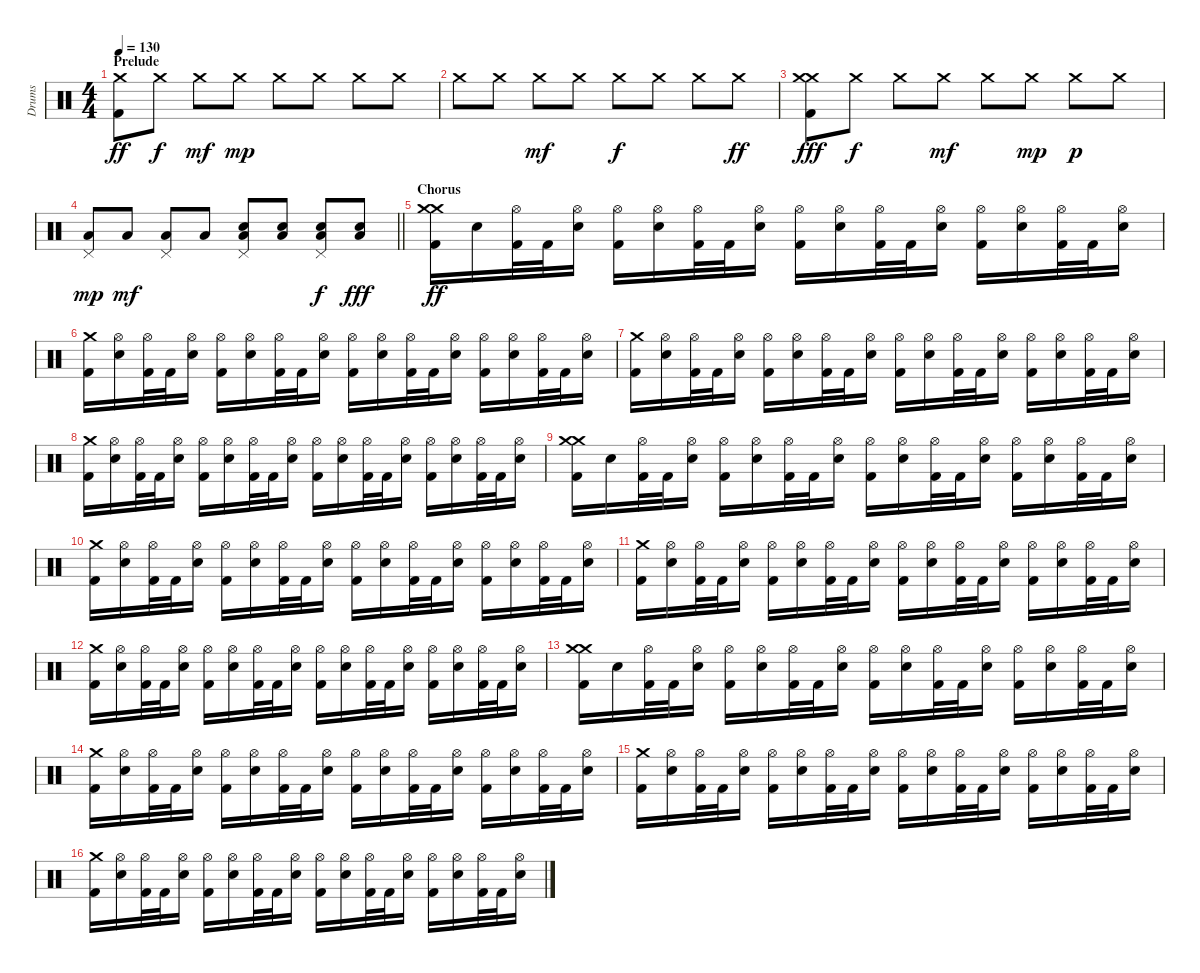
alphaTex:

\track ("Drums" "Drums") {instrument percussion}
\staff {score}
\articulation defaults
\ts (4 4)
\section ("" "Prelude")
\tempo 130
\clef neutral
\ks c
("Crash medium (hit)" "Kick (hit) 2").8{dy ff} "Crash medium (hit)".8{dy f} "Crash medium (hit)".8{dy mf} "Crash medium (hit)".8{dy mp} "Crash medium (hit)".8 "Crash medium (hit)".8 "Crash medium (hit)".8 "Crash medium (hit)".8 |
"Crash medium (hit)".8 "Crash medium (hit)".8 "Crash medium (hit)".8{dy mf} "Crash medium (hit)".8 "Crash medium (hit)".8{dy f} "Crash medium (hit)".8 "Crash medium (hit)".8 "Crash medium (hit)".8{dy ff} |
("Crash medium (hit)" "Crash medium (hit)" "Kick (hit) 2").8{dy fff} "Crash medium (hit)".8{dy f} "Crash medium (hit)".8 "Crash medium (hit)".8{dy mf} "Crash medium (hit)".8 "Crash medium (hit)".8{dy mp} "Crash medium (hit)".8{dy p} "Crash medium (hit)".8 |
\barLineRight lightlight
("Pedal Hi-Hat (hit)" "Low Tom (hit)").8{dy mp} "Low Tom (hit)".8{dy mf} ("Pedal Hi-Hat (hit)" "Low Tom (hit)").8 "Low Tom (hit)".8 ("Pedal Hi-Hat (hit)" "Snare (hit) 2" "Low Tom (hit)").8 ("Snare (hit) 2" "Low Tom (hit)").8 ("Pedal Hi-Hat (hit)" "Snare (hit) 2" "Low Tom (hit)").8{dy f} ("Snare (hit) 2" "Low Tom (hit)").8{dy fff} |
\section ("" "Chorus")
("Crash medium (hit)" "Crash medium (hit)" "Kick (hit) 2").16{dy ff} "Snare (hit) 2".16 ("Hi-Hat (open)" "Kick (hit) 2").32 "Kick (hit) 2".32 ("Hi-Hat (open)" "Snare (hit) 2").16 ("Hi-Hat (open)" "Kick (hit) 2").16 ("Hi-Hat (open)" "Snare (hit) 2").16 ("Hi-Hat (open)" "Kick (hit) 2").32 "Kick (hit) 2".32 ("Hi-Hat (open)" "Snare (hit) 2").16 ("Hi-Hat (open)" "Kick (hit) 2").16 ("Hi-Hat (open)" "Snare (hit) 2").16 ("Hi-Hat (open)" "Kick (hit) 2").32 "Kick (hit) 2".32 ("Hi-Hat (open)" "Snare (hit) 2").16 ("Hi-Hat (open)" "Kick (hit) 2").16 ("Hi-Hat (open)" "Snare (hit) 2").16 ("Hi-Hat (open)" "Kick (hit) 2").32 "Kick (hit) 2".32 ("Hi-Hat (open)" "Snare (hit) 2").16 |
("Crash medium (hit)" "Kick (hit) 2").16 ("Hi-Hat (open)" "Snare (hit) 2").16 ("Hi-Hat (open)" "Kick (hit) 2").32 "Kick (hit) 2".32 ("Hi-Hat (open)" "Snare (hit) 2").16 ("Hi-Hat (open)" "Kick (hit) 2").16 ("Hi-Hat (open)" "Snare (hit) 2").16 ("Hi-Hat (open)" "Kick (hit) 2").32 "Kick (hit) 2".32 ("Hi-Hat (open)" "Snare (hit) 2").16 ("Hi-Hat (open)" "Kick (hit) 2").16 ("Hi-Hat (open)" "Snare (hit) 2").16 ("Hi-Hat (open)" "Kick (hit) 2").32 "Kick (hit) 2".32 ("Hi-Hat (open)" "Snare (hit) 2").16 ("Hi-Hat (open)" "Kick (hit) 2").16 ("Hi-Hat (open)" "Snare (hit) 2").16 ("Hi-Hat (open)" "Kick (hit) 2").32 "Kick (hit) 2".32 ("Hi-Hat (open)" "Snare (hit) 2").16 |
("Crash medium (hit)" "Kick (hit) 2").16 ("Hi-Hat (open)" "Snare (hit) 2").16 ("Hi-Hat (open)" "Kick (hit) 2").32 "Kick (hit) 2".32 ("Hi-Hat (open)" "Snare (hit) 2").16 ("Hi-Hat (open)" "Kick (hit) 2").16 ("Hi-Hat (open)" "Snare (hit) 2").16 ("Hi-Hat (open)" "Kick (hit) 2").32 "Kick (hit) 2".32 ("Hi-Hat (open)" "Snare (hit) 2").16 ("Hi-Hat (open)" "Kick (hit) 2").16 ("Hi-Hat (open)" "Snare (hit) 2").16 ("Hi-Hat (open)" "Kick (hit) 2").32 "Kick (hit) 2".32 ("Hi-Hat (open)" "Snare (hit) 2").16 ("Hi-Hat (open)" "Kick (hit) 2").16 ("Hi-Hat (open)" "Snare (hit) 2").16 ("Hi-Hat (open)" "Kick (hit) 2").32 "Kick (hit) 2".32 ("Hi-Hat (open)" "Snare (hit) 2").16 |
("Crash medium (hit)" "Kick (hit) 2").16 ("Hi-Hat (open)" "Snare (hit) 2").16 ("Hi-Hat (open)" "Kick (hit) 2").32 "Kick (hit) 2".32 ("Hi-Hat (open)" "Snare (hit) 2").16 ("Hi-Hat (open)" "Kick (hit) 2").16 ("Hi-Hat (open)" "Snare (hit) 2").16 ("Hi-Hat (open)" "Kick (hit) 2").32 "Kick (hit) 2".32 ("Hi-Hat (open)" "Snare (hit) 2").16 ("Hi-Hat (open)" "Kick (hit) 2").16 ("Hi-Hat (open)" "Snare (hit) 2").16 ("Hi-Hat (open)" "Kick (hit) 2").32 "Kick (hit) 2".32 ("Hi-Hat (open)" "Snare (hit) 2").16 ("Hi-Hat (open)" "Kick (hit) 2").16 ("Hi-Hat (open)" "Snare (hit) 2").16 ("Hi-Hat (open)" "Kick (hit) 2").32 "Kick (hit) 2".32 ("Hi-Hat (open)" "Snare (hit) 2").16 |
("Crash medium (hit)" "Crash medium (hit)" "Kick (hit) 2").16 "Snare (hit) 2".16 ("Hi-Hat (open)" "Kick (hit) 2").32 "Kick (hit) 2".32 ("Hi-Hat (open)" "Snare (hit) 2").16 ("Hi-Hat (open)" "Kick (hit) 2").16 ("Hi-Hat (open)" "Snare (hit) 2").16 ("Hi-Hat (open)" "Kick (hit) 2").32 "Kick (hit) 2".32 ("Hi-Hat (open)" "Snare (hit) 2").16 ("Hi-Hat (open)" "Kick (hit) 2").16 ("Hi-Hat (open)" "Snare (hit) 2").16 ("Hi-Hat (open)" "Kick (hit) 2").32 "Kick (hit) 2".32 ("Hi-Hat (open)" "Snare (hit) 2").16 ("Hi-Hat (open)" "Kick (hit) 2").16 ("Hi-Hat (open)" "Snare (hit) 2").16 ("Hi-Hat (open)" "Kick (hit) 2").32 "Kick (hit) 2".32 ("Hi-Hat (open)" "Snare (hit) 2").16 |
("Crash medium (hit)" "Kick (hit) 2").16 ("Hi-Hat (open)" "Snare (hit) 2").16 ("Hi-Hat (open)" "Kick (hit) 2").32 "Kick (hit) 2".32 ("Hi-Hat (open)" "Snare (hit) 2").16 ("Hi-Hat (open)" "Kick (hit) 2").16 ("Hi-Hat (open)" "Snare (hit) 2").16 ("Hi-Hat (open)" "Kick (hit) 2").32 "Kick (hit) 2".32 ("Hi-Hat (open)" "Snare (hit) 2").16 ("Hi-Hat (open)" "Kick (hit) 2").16 ("Hi-Hat (open)" "Snare (hit) 2").16 ("Hi-Hat (open)" "Kick (hit) 2").32 "Kick (hit) 2".32 ("Hi-Hat (open)" "Snare (hit) 2").16 ("Hi-Hat (open)" "Kick (hit) 2").16 ("Hi-Hat (open)" "Snare (hit) 2").16 ("Hi-Hat (open)" "Kick (hit) 2").32 "Kick (hit) 2".32 ("Hi-Hat (open)" "Snare (hit) 2").16 |
("Crash medium (hit)" "Kick (hit) 2").16 ("Hi-Hat (open)" "Snare (hit) 2").16 ("Hi-Hat (open)" "Kick (hit) 2").32 "Kick (hit) 2".32 ("Hi-Hat (open)" "Snare (hit) 2").16 ("Hi-Hat (open)" "Kick (hit) 2").16 ("Hi-Hat (open)" "Snare (hit) 2").16 ("Hi-Hat (open)" "Kick (hit) 2").32 "Kick (hit) 2".32 ("Hi-Hat (open)" "Snare (hit) 2").16 ("Hi-Hat (open)" "Kick (hit) 2").16 ("Hi-Hat (open)" "Snare (hit) 2").16 ("Hi-Hat (open)" "Kick (hit) 2").32 "Kick (hit) 2".32 ("Hi-Hat (open)" "Snare (hit) 2").16 ("Hi-Hat (open)" "Kick (hit) 2").16 ("Hi-Hat (open)" "Snare (hit) 2").16 ("Hi-Hat (open)" "Kick (hit) 2").32 "Kick (hit) 2".32 ("Hi-Hat (open)" "Snare (hit) 2").16 |
("Crash medium (hit)" "Kick (hit) 2").16 ("Hi-Hat (open)" "Snare (hit) 2").16 ("Hi-Hat (open)" "Kick (hit) 2").32 "Kick (hit) 2".32 ("Hi-Hat (open)" "Snare (hit) 2").16 ("Hi-Hat (open)" "Kick (hit) 2").16 ("Hi-Hat (open)" "Snare (hit) 2").16 ("Hi-Hat (open)" "Kick (hit) 2").32 "Kick (hit) 2".32 ("Hi-Hat (open)" "Snare (hit) 2").16 ("Hi-Hat (open)" "Kick (hit) 2").16 ("Hi-Hat (open)" "Snare (hit) 2").16 ("Hi-Hat (open)" "Kick (hit) 2").32 "Kick (hit) 2".32 ("Hi-Hat (open)" "Snare (hit) 2").16 ("Hi-Hat (open)" "Kick (hit) 2").16 ("Hi-Hat (open)" "Snare (hit) 2").16 ("Hi-Hat (open)" "Kick (hit) 2").32 "Kick (hit) 2".32 ("Hi-Hat (open)" "Snare (hit) 2").16 |
("Crash medium (hit)" "Crash medium (hit)" "Kick (hit) 2").16 "Snare (hit) 2".16 ("Hi-Hat (open)" "Kick (hit) 2").32 "Kick (hit) 2".32 ("Hi-Hat (open)" "Snare (hit) 2").16 ("Hi-Hat (open)" "Kick (hit) 2").16 ("Hi-Hat (open)" "Snare (hit) 2").16 ("Hi-Hat (open)" "Kick (hit) 2").32 "Kick (hit) 2".32 ("Hi-Hat (open)" "Snare (hit) 2").16 ("Hi-Hat (open)" "Kick (hit) 2").16 ("Hi-Hat (open)" "Snare (hit) 2").16 ("Hi-Hat (open)" "Kick (hit) 2").32 "Kick (hit) 2".32 ("Hi-Hat (open)" "Snare (hit) 2").16 ("Hi-Hat (open)" "Kick (hit) 2").16 ("Hi-Hat (open)" "Snare (hit) 2").16 ("Hi-Hat (open)" "Kick (hit) 2").32 "Kick (hit) 2".32 ("Hi-Hat (open)" "Snare (hit) 2").16 |
("Crash medium (hit)" "Kick (hit) 2").16 ("Hi-Hat (open)" "Snare (hit) 2").16 ("Hi-Hat (open)" "Kick (hit) 2").32 "Kick (hit) 2".32 ("Hi-Hat (open)" "Snare (hit) 2").16 ("Hi-Hat (open)" "Kick (hit) 2").16 ("Hi-Hat (open)" "Snare (hit) 2").16 ("Hi-Hat (open)" "Kick (hit) 2").32 "Kick (hit) 2".32 ("Hi-Hat (open)" "Snare (hit) 2").16 ("Hi-Hat (open)" "Kick (hit) 2").16 ("Hi-Hat (open)" "Snare (hit) 2").16 ("Hi-Hat (open)" "Kick (hit) 2").32 "Kick (hit) 2".32 ("Hi-Hat (open)" "Snare (hit) 2").16 ("Hi-Hat (open)" "Kick (hit) 2").16 ("Hi-Hat (open)" "Snare (hit) 2").16 ("Hi-Hat (open)" "Kick (hit) 2").32 "Kick (hit) 2".32 ("Hi-Hat (open)" "Snare (hit) 2").16 |
("Crash medium (hit)" "Kick (hit) 2").16 ("Hi-Hat (open)" "Snare (hit) 2").16 ("Hi-Hat (open)" "Kick (hit) 2").32 "Kick (hit) 2".32 ("Hi-Hat (open)" "Snare (hit) 2").16 ("Hi-Hat (open)" "Kick (hit) 2").16 ("Hi-Hat (open)" "Snare (hit) 2").16 ("Hi-Hat (open)" "Kick (hit) 2").32 "Kick (hit) 2".32 ("Hi-Hat (open)" "Snare (hit) 2").16 ("Hi-Hat (open)" "Kick (hit) 2").16 ("Hi-Hat (open)" "Snare (hit) 2").16 ("Hi-Hat (open)" "Kick (hit) 2").32 "Kick (hit) 2".32 ("Hi-Hat (open)" "Snare (hit) 2").16 ("Hi-Hat (open)" "Kick (hit) 2").16 ("Hi-Hat (open)" "Snare (hit) 2").16 ("Hi-Hat (open)" "Kick (hit) 2").32 "Kick (hit) 2".32 ("Hi-Hat (open)" "Snare (hit) 2").16 |
("Crash medium (hit)" "Kick (hit) 2").16 ("Hi-Hat (open)" "Snare (hit) 2").16 ("Hi-Hat (open)" "Kick (hit) 2").32 "Kick (hit) 2".32 ("Hi-Hat (open)" "Snare (hit) 2").16 ("Hi-Hat (open)" "Kick (hit) 2").16 ("Hi-Hat (open)" "Snare (hit) 2").16 ("Hi-Hat (open)" "Kick (hit) 2").32 "Kick (hit) 2".32 ("Hi-Hat (open)" "Snare (hit) 2").16 ("Hi-Hat (open)" "Kick (hit) 2").16 ("Hi-Hat (open)" "Snare (hit) 2").16 ("Hi-Hat (open)" "Kick (hit) 2").32 "Kick (hit) 2".32 ("Hi-Hat (open)" "Snare (hit) 2").16 ("Hi-Hat (open)" "Kick (hit) 2").16 ("Hi-Hat (open)" "Snare (hit) 2").16 ("Hi-Hat (open)" "Kick (hit) 2").32 "Kick (hit) 2".32 ("Hi-Hat (open)" "Snare (hit) 2").16
